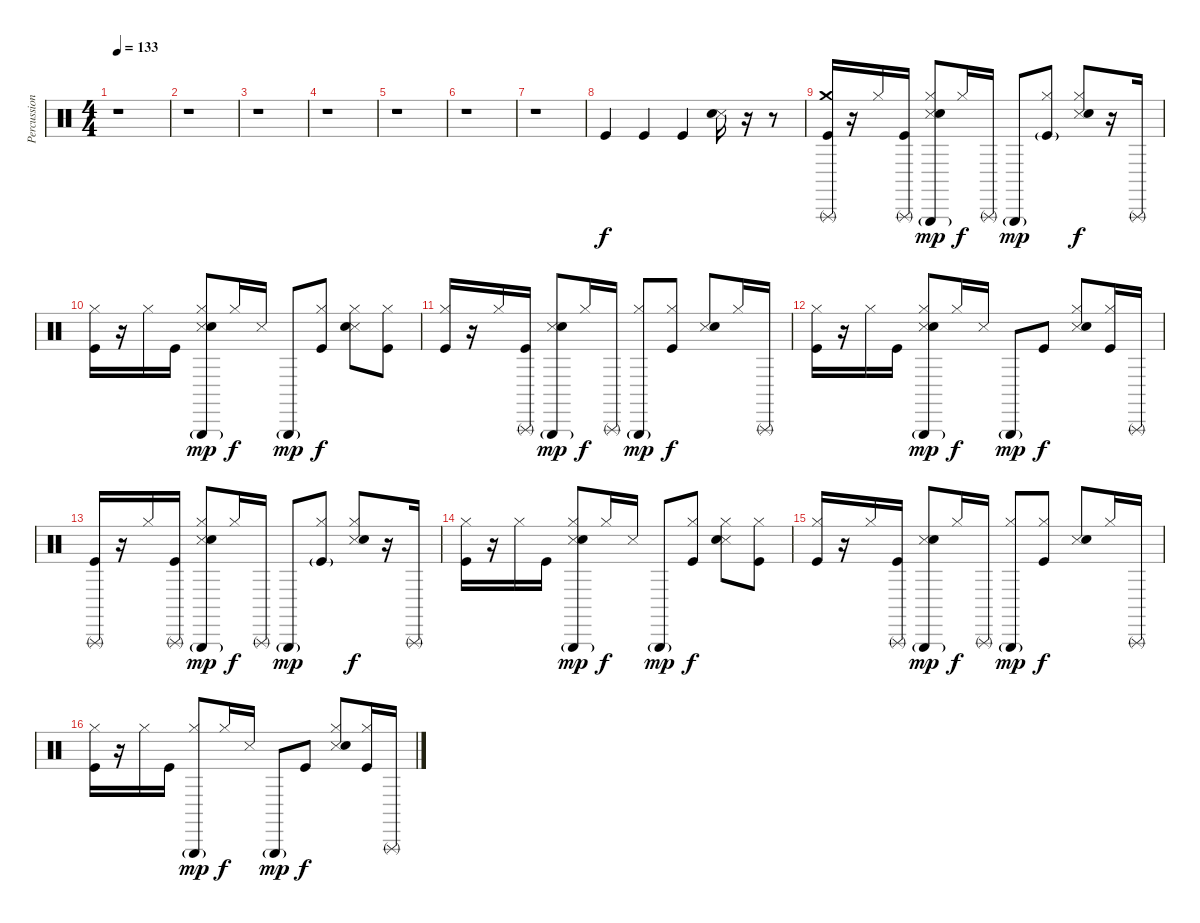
\track ("Percussion" "Percussion") {instrument percussion}
\staff {score}
\articulation defaults
\ts (4 4)
\tempo 133
\clef neutral
\ks c
r.1{dy f} |
r.1 |
r.1 |
r.1 |
r.1 |
r.1 |
r.1 |
"Kick (hit)".4 "Kick (hit)".4 "Kick (hit)".4 ("Snare (side stick) 3" "Electric Snare (hit)").16 r.16 r.8 |
("Crash medium (hit)" "Triangle (rnute)" "Kick (hit)").16 r.16 "Hi-Hat (closed)".16 ("Triangle (rnute)" "Kick (hit)").16 ("Hi-Hat (closed)" "Triangle (hit)"{g} "Snare (side stick) 3" "Electric Snare (hit)").8{dy mp} "Hi-Hat (closed)".16{dy f} "Triangle (rnute)".16 "Triangle (hit)"{g}.8{dy mp} ("Hi-Hat (closed)" "Kick (hit)"{g}).8 ("Hi-Hat (closed)" "Snare (side stick) 3" "Electric Snare (hit)").8{dy f} r.16 "Triangle (rnute)".16 |
("Hi-Hat (closed)" "Kick (hit)").16 r.16 "Hi-Hat (closed)".16 "Kick (hit)".16 ("Hi-Hat (closed)" "Triangle (hit)"{g} "Snare (side stick) 3" "Electric Snare (hit)").8{dy mp} "Hi-Hat (closed)".16{dy f} "Snare (side stick) 3".16 "Triangle (hit)"{g}.8{dy mp} ("Hi-Hat (closed)" "Kick (hit)").8{dy f} ("Hi-Hat (closed)" "Snare (side stick) 3" "Electric Snare (hit)").8 ("Hi-Hat (closed)" "Kick (hit)").8 |
("Hi-Hat (closed)" "Kick (hit)").16 r.16 "Hi-Hat (closed)".16 ("Triangle (rnute)" "Kick (hit)").16 ("Triangle (hit)"{g} "Snare (side stick) 3" "Electric Snare (hit)").8{dy mp} "Hi-Hat (closed)".16{dy f} "Triangle (rnute)".16 ("Hi-Hat (closed)" "Triangle (hit)"{g}).8{dy mp} ("Hi-Hat (closed)" "Kick (hit)").8{dy f} ("Snare (side stick) 3" "Electric Snare (hit)").8 "Hi-Hat (closed)".16 "Triangle (rnute)".16 |
("Hi-Hat (closed)" "Kick (hit)").16 r.16 "Hi-Hat (closed)".16 "Kick (hit)".16 ("Hi-Hat (closed)" "Triangle (hit)"{g} "Snare (side stick) 3" "Electric Snare (hit)").8{dy mp} "Hi-Hat (closed)".16{dy f} "Snare (side stick) 3".16 "Triangle (hit)"{g}.8{dy mp} "Kick (hit)".8{dy f} ("Hi-Hat (closed)" "Snare (side stick) 3" "Electric Snare (hit)").8 ("Hi-Hat (closed)" "Kick (hit)").16 "Triangle (rnute)".16 |
("Triangle (rnute)" "Kick (hit)").16 r.16 "Hi-Hat (closed)".16 ("Triangle (rnute)" "Kick (hit)").16 ("Hi-Hat (closed)" "Triangle (hit)"{g} "Snare (side stick) 3" "Electric Snare (hit)").8{dy mp} "Hi-Hat (closed)".16{dy f} "Triangle (rnute)".16 "Triangle (hit)"{g}.8{dy mp} ("Hi-Hat (closed)" "Kick (hit)"{g}).8 ("Hi-Hat (closed)" "Snare (side stick) 3" "Electric Snare (hit)").8{dy f} r.16 "Triangle (rnute)".16 |
("Hi-Hat (closed)" "Kick (hit)").16 r.16 "Hi-Hat (closed)".16 "Kick (hit)".16 ("Hi-Hat (closed)" "Triangle (hit)"{g} "Snare (side stick) 3" "Electric Snare (hit)").8{dy mp} "Hi-Hat (closed)".16{dy f} "Snare (side stick) 3".16 "Triangle (hit)"{g}.8{dy mp} ("Hi-Hat (closed)" "Kick (hit)").8{dy f} ("Hi-Hat (closed)" "Snare (side stick) 3" "Electric Snare (hit)").8 ("Hi-Hat (closed)" "Kick (hit)").8 |
("Hi-Hat (closed)" "Kick (hit)").16 r.16 "Hi-Hat (closed)".16 ("Triangle (rnute)" "Kick (hit)").16 ("Triangle (hit)"{g} "Snare (side stick) 3" "Electric Snare (hit)").8{dy mp} "Hi-Hat (closed)".16{dy f} "Triangle (rnute)".16 ("Hi-Hat (closed)" "Triangle (hit)"{g}).8{dy mp} ("Hi-Hat (closed)" "Kick (hit)").8{dy f} ("Snare (side stick) 3" "Electric Snare (hit)").8 "Hi-Hat (closed)".16 "Triangle (rnute)".16 |
("Hi-Hat (closed)" "Kick (hit)").16 r.16 "Hi-Hat (closed)".16 "Kick (hit)".16 ("Hi-Hat (closed)" "Triangle (hit)"{g}).8{dy mp} "Hi-Hat (closed)".16{dy f} "Snare (side stick) 3".16 "Triangle (hit)"{g}.8{dy mp} "Kick (hit)".8{dy f} ("Hi-Hat (closed)" "Snare (side stick) 3" "Electric Snare (hit)").8 ("Hi-Hat (closed)" "Kick (hit)").16 "Triangle (rnute)".16
